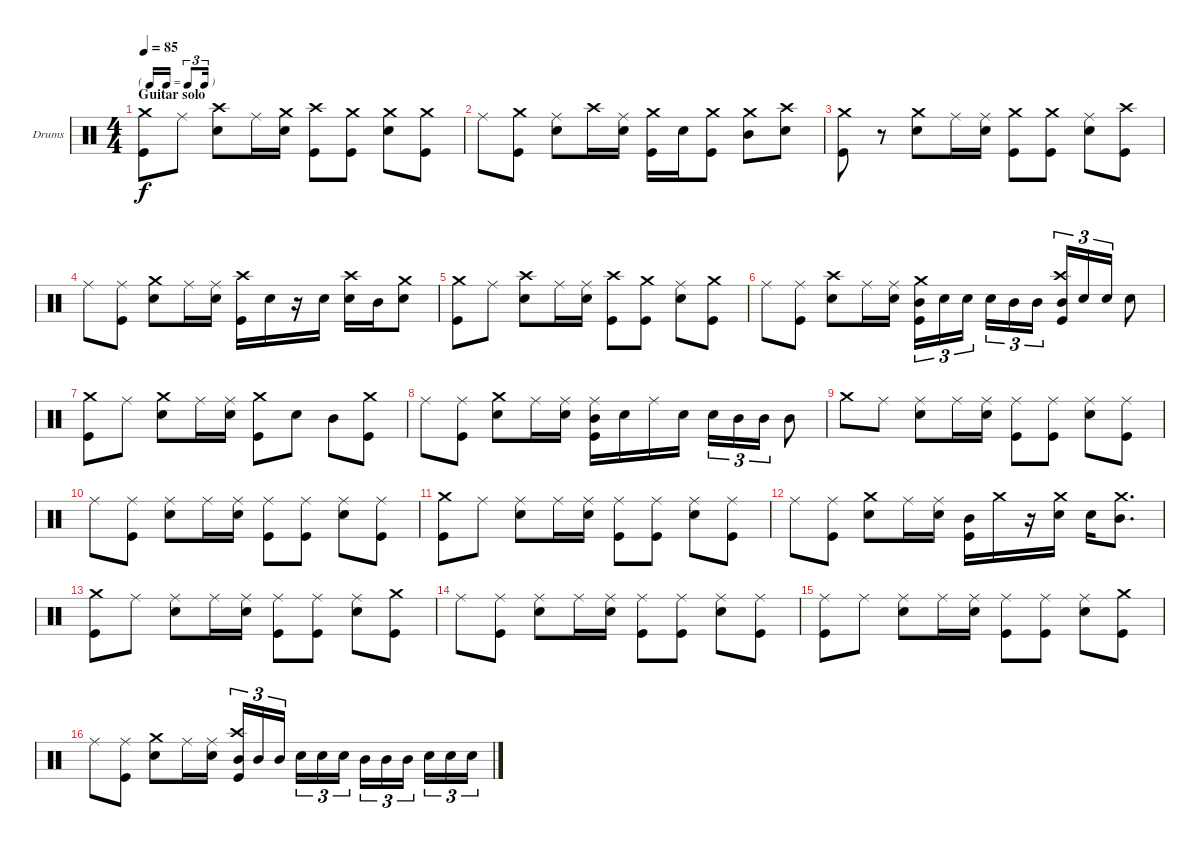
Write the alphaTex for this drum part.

\bracketExtendMode groupsimilarinstruments
\firstSystemTrackNameOrientation horizontal
\otherSystemsTrackNameOrientation horizontal
\track ("Drumkit" "Drums") {instrument percussion}
\staff {score}
\articulation defaults
\ts (4 4)
\tf triplet16th
\section ("" "Guitar solo")
\tempo 85
\clef neutral
\ks c
("Crash medium (hit)" "Kick (hit)").8{dy f} "Ride (middle)".8 ("Snare (hit) 2" "Crash high (hit)").8 "Ride (middle)".16 ("Snare (hit) 2" "Crash medium (hit)").16 ("Kick (hit)" "Crash high (hit)").8 ("Kick (hit)" "Crash medium (hit)").8 ("Snare (hit) 2" "Crash medium (hit)").8 ("Crash medium (hit)" "Kick (hit)").8 |
"Ride (middle)".8 ("Kick (hit)" "Crash medium (hit)").8 ("Ride (middle)" "Snare (hit) 2").8 "Crash high (hit)".16 ("Snare (hit) 2" "Ride (middle)").16 ("Kick (hit)" "Crash medium (hit)").16 "Snare (hit) 2".16 ("Kick (hit)" "Crash medium (hit)").8 ("Crash medium (hit)" "Mid Tom (hit)").8 ("Crash high (hit)" "Snare (hit) 2").8 |
("Crash medium (hit)" "Kick (hit)").8 r.8 ("Snare (hit) 2" "Crash medium (hit)").8 "Ride (middle)".16 ("Snare (hit) 2" "Ride (middle)").16 ("Kick (hit)" "Crash medium (hit)").8 ("Kick (hit)" "Crash medium (hit)").8 ("Ride (middle)" "Snare (hit) 2").8 ("Crash high (hit)" "Kick (hit)").8 |
"Ride (middle)".8 ("Ride (middle)" "Kick (hit)").8 ("Snare (hit) 2" "Crash medium (hit)").8 "Ride (middle)".16 ("Snare (hit) 2" "Ride (middle)").16 ("Kick (hit)" "Crash high (hit)").16 "Snare (hit) 2".16 r.16 "Snare (hit) 2".16 ("Snare (hit) 2" "Crash high (hit)").16 "Mid Tom (hit)".16 ("Crash medium (hit)" "Snare (hit) 2").8 |
("Crash medium (hit)" "Kick (hit)").8 "Ride (middle)".8 ("Snare (hit) 2" "Crash high (hit)").8 "Ride (middle)".16 ("Snare (hit) 2" "Ride (middle)").16 ("Kick (hit)" "Crash high (hit)").8 ("Kick (hit)" "Crash medium (hit)").8 ("Ride (middle)" "Snare (hit) 2").8 ("Crash medium (hit)" "Kick (hit)").8 |
"Ride (middle)".8 ("Ride (middle)" "Kick (hit)").8 ("Snare (hit) 2" "Crash high (hit)").8 "Ride (middle)".16 ("Snare (hit) 2" "Ride (middle)").16 ("Kick (hit)" "Mid Tom (hit)" "Crash medium (hit)").16{tu (3 2)} "Snare (hit) 2".16{tu (3 2)} "Snare (hit) 2".16{tu (3 2)} "Snare (hit) 2".16{tu (3 2)} "Mid Tom (hit)".16{tu (3 2)} "Mid Tom (hit)".16{tu (3 2)} ("Mid Tom (hit)" "Crash high (hit)" "Kick (hit)").16{tu (3 2)} "Snare (hit) 2".16{tu (3 2)} "Snare (hit) 2".16{tu (3 2)} "Snare (hit) 2".8 |
("Crash medium (hit)" "Kick (hit)").8 "Ride (middle)".8 ("Snare (hit) 2" "Crash medium (hit)").8 "Ride (middle)".16 ("Snare (hit) 2" "Ride (middle)").16 ("Kick (hit)" "Crash medium (hit)").8 "Snare (hit) 2".8 "Mid Tom (hit)".8 ("Crash medium (hit)" "Kick (hit)").8 |
"Ride (middle)".8 ("Ride (middle)" "Kick (hit)").8 ("Snare (hit) 2" "Crash medium (hit)").8 "Ride (middle)".16 ("Snare (hit) 2" "Ride (middle)").16 ("Kick (hit)" "Mid Tom (hit)" "Ride (middle)").16 "Snare (hit) 2".16 "Ride (middle)".16 "Snare (hit) 2".16 "Snare (hit) 2".16{tu (3 2)} "Mid Tom (hit)".16{tu (3 2)} "Mid Tom (hit)".16{tu (3 2)} "Mid Tom (hit)".8 |
"Crash medium (hit)".8 "Ride (middle)".8 ("Snare (hit) 2" "Ride (middle)").8 "Ride (middle)".16 ("Snare (hit) 2" "Ride (middle)").16 ("Ride (middle)" "Kick (hit)").8 ("Ride (middle)" "Kick (hit)").8 ("Ride (middle)" "Snare (hit) 2").8 ("Kick (hit)" "Ride (middle)").8 |
"Ride (middle)".8 ("Ride (middle)" "Kick (hit)").8 ("Ride (middle)" "Snare (hit) 2").8 "Ride (middle)".16 ("Snare (hit) 2" "Ride (middle)").16 ("Ride (middle)" "Kick (hit)").8 ("Ride (middle)" "Kick (hit)").8 ("Ride (middle)" "Snare (hit) 2").8 ("Ride (middle)" "Kick (hit)").8 |
("Crash medium (hit)" "Kick (hit)").8 "Ride (middle)".8 ("Snare (hit) 2" "Ride (middle)").8 "Ride (middle)".16 ("Snare (hit) 2" "Ride (middle)").16 ("Kick (hit)" "Ride (middle)").8 ("Ride (middle)" "Kick (hit)").8 ("Ride (middle)" "Snare (hit) 2").8 ("Ride (middle)" "Kick (hit)").8 |
"Ride (middle)".8 ("Ride (middle)" "Kick (hit)").8 ("Snare (hit) 2" "Crash medium (hit)").8 "Ride (middle)".16 ("Snare (hit) 2" "Ride (middle)").16 ("Kick (hit)" "Mid Tom (hit)").16 "Crash medium (hit)".16 r.16 ("Snare (hit) 2" "Crash medium (hit)").16 "Snare (hit) 2".16 ("Mid Tom (hit)" "Crash medium (hit)").8{d} |
("Crash medium (hit)" "Kick (hit)").8 "Ride (middle)".8 ("Snare (hit) 2" "Ride (middle)").8 "Ride (middle)".16 ("Snare (hit) 2" "Ride (middle)").16 ("Ride (middle)" "Kick (hit)").8 ("Ride (middle)" "Kick (hit)").8 ("Ride (middle)" "Snare (hit) 2").8 ("Crash medium (hit)" "Kick (hit)").8 |
"Ride (middle)".8 ("Ride (middle)" "Kick (hit)").8 ("Ride (middle)" "Snare (hit) 2").8 "Ride (middle)".16 ("Snare (hit) 2" "Ride (middle)").16 ("Ride (middle)" "Kick (hit)").8 ("Ride (middle)" "Kick (hit)").8 ("Ride (middle)" "Snare (hit) 2").8 ("Ride (middle)" "Kick (hit)").8 |
("Kick (hit)" "Ride (middle)").8 "Ride (middle)".8 ("Snare (hit) 2" "Ride (middle)").8 "Ride (middle)".16 ("Snare (hit) 2" "Ride (middle)").16 ("Kick (hit)" "Ride (middle)").8 ("Ride (middle)" "Kick (hit)").8 ("Ride (middle)" "Snare (hit) 2").8 ("Crash medium (hit)" "Kick (hit)").8 |
"Ride (middle)".8 ("Ride (middle)" "Kick (hit)").8 ("Snare (hit) 2" "Crash medium (hit)").8 "Ride (middle)".16 ("Snare (hit) 2" "Ride (middle)").16 ("Kick (hit)" "Mid Tom (hit)" "Crash high (hit)").16{tu (3 2)} "Mid Tom (hit)".16{tu (3 2)} "Mid Tom (hit)".16{tu (3 2)} "Snare (hit) 2".16{tu (3 2)} "Snare (hit) 2".16{tu (3 2)} "Snare (hit) 2".16{tu (3 2)} "Mid Tom (hit)".16{tu (3 2)} "Mid Tom (hit)".16{tu (3 2)} "Mid Tom (hit)".16{tu (3 2)} "Snare (hit) 2".16{tu (3 2)} "Snare (hit) 2".16{tu (3 2)} "Snare (hit) 2".16{tu (3 2)}
